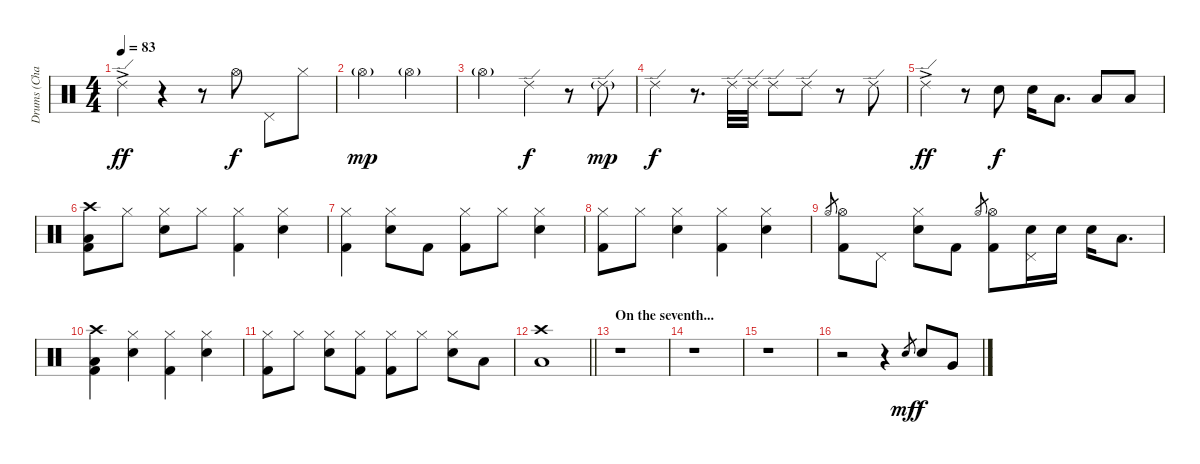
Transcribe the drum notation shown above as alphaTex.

\track ("Drums (Charlie)" "Drums (Cha") {instrument percussion}
\staff {score}
\articulation defaults
\ts (4 4)
\tempo 83
\clef neutral
\ks c "Ride (edge) 2"{ac}.4{dy ff}
r.4 r.8 "Hi-Hat (open)".8{dy f} "Pedal Hi-Hat (hit)".8 "Hi-Hat (closed)".8 |
"Hi-Hat (open)"{g}.2{dy mp} "Hi-Hat (open)"{g}.2 |
"Hi-Hat (open)"{g}.2 "Ride (edge) 2".4{dy f} r.8 "Ride (edge) 2"{g}.8{dy mp} |
"Ride (edge) 2".4{dy f} r.8{d} "Ride (edge) 2".32 "Ride (edge) 2".32 "Ride (edge) 2".8 "Ride (edge) 2".8 r.8 "Ride (edge) 2".8 |
"Ride (edge) 2"{ac}.4{dy ff} r.8 "Snare (hit) 2".8{dy f} "Snare (hit) 2".16 "Low Tom (hit)".8{d} "Low Tom (hit)".8 "Low Tom (hit)".8 |
("Crash high (hit)" "Low Tom (hit)" "Kick (hit) 2").8 "Hi-Hat (closed)".8 ("Hi-Hat (closed)" "Snare (hit) 2").8 "Hi-Hat (closed)".8 ("Hi-Hat (closed)" "Kick (hit) 2").4 ("Hi-Hat (closed)" "Snare (hit) 2").4 |
("Hi-Hat (closed)" "Kick (hit) 2").4 ("Hi-Hat (closed)" "Snare (hit) 2").8 "Kick (hit) 2".8 ("Hi-Hat (closed)" "Kick (hit) 2").8 "Hi-Hat (closed)".8 ("Hi-Hat (closed)" "Snare (hit) 2").4 |
("Hi-Hat (closed)" "Kick (hit) 2").8 "Hi-Hat (closed)".8 ("Hi-Hat (closed)" "Snare (hit) 2").4 ("Hi-Hat (closed)" "Kick (hit) 2").4 ("Hi-Hat (closed)" "Snare (hit) 2").4 |
"Hi-Hat (open)".8{gr} ("Hi-Hat (open)" "Kick (hit) 2").8 "Pedal Hi-Hat (hit)".8 ("Hi-Hat (closed)" "Snare (hit) 2").8 "Kick (hit) 2".8 "Hi-Hat (open)".8{gr} ("Hi-Hat (open)" "Kick (hit) 2").8 ("Pedal Hi-Hat (hit)" "Snare (hit) 2").16 "Snare (hit) 2".16 "Snare (hit) 2".16 "Low Floor Tom (hit)".8{d} |
("Crash high (hit)" "Low Floor Tom (hit)" "Kick (hit) 2").4 ("Hi-Hat (closed)" "Snare (hit) 2").4 ("Hi-Hat (closed)" "Kick (hit) 2").4 ("Hi-Hat (closed)" "Snare (hit) 2").4 |
("Hi-Hat (closed)" "Kick (hit) 2").8 "Hi-Hat (closed)".8 ("Hi-Hat (closed)" "Snare (hit) 2").8 ("Hi-Hat (closed)" "Kick (hit) 2").8 ("Hi-Hat (closed)" "Kick (hit) 2").8 "Hi-Hat (closed)".8 ("Hi-Hat (closed)" "Snare (hit) 2").8 "Low Tom (hit)".8 |
\barLineRight lightlight
("Crash high (hit)" "Low Floor Tom (hit)").1 |
\section ("" "On the seventh...")
r.1 |
r.1 |
r.1 |
r.2 r.4 "Snare (hit) 2".8{gr dy mf} "Snare (hit) 2".8{dy f} "Very Low Tom (hit)".8
